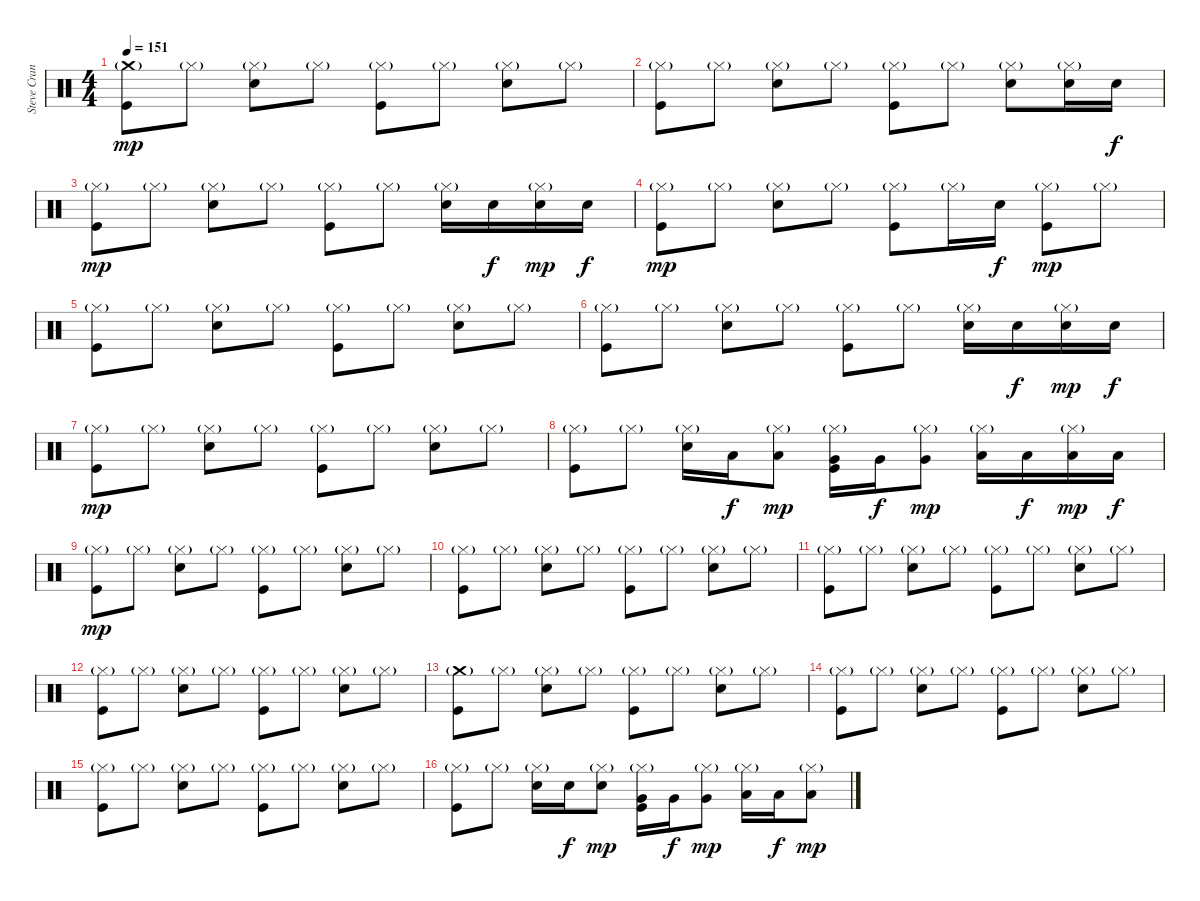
\track ("Steve Crane" "Steve Cran") {instrument percussion}
\staff {score}
\articulation defaults
\ts (4 4)
\tempo 151
\clef neutral
\ks c
("Crash medium (hit)"{g} "Kick (hit)").8{dy mp} "Hi-Hat (closed)"{g}.8 ("Hi-Hat (closed)"{g} "Snare (hit) 2").8 "Hi-Hat (closed)"{g}.8 ("Hi-Hat (closed)"{g} "Kick (hit)").8 "Hi-Hat (closed)"{g}.8 ("Hi-Hat (closed)"{g} "Snare (hit) 2").8 "Hi-Hat (closed)"{g}.8 |
("Hi-Hat (closed)"{g} "Kick (hit)").8 "Hi-Hat (closed)"{g}.8 ("Hi-Hat (closed)"{g} "Snare (hit) 2").8 "Hi-Hat (closed)"{g}.8 ("Hi-Hat (closed)"{g} "Kick (hit)").8 "Hi-Hat (closed)"{g}.8 ("Hi-Hat (closed)"{g} "Snare (hit) 2").8 ("Hi-Hat (closed)"{g} "Snare (hit) 2").16 "Snare (hit) 2".16{dy f} |
("Hi-Hat (closed)"{g} "Kick (hit)").8{dy mp} "Hi-Hat (closed)"{g}.8 ("Hi-Hat (closed)"{g} "Snare (hit) 2").8 "Hi-Hat (closed)"{g}.8 ("Hi-Hat (closed)"{g} "Kick (hit)").8 "Hi-Hat (closed)"{g}.8 ("Hi-Hat (closed)"{g} "Snare (hit) 2").16 "Snare (hit) 2".16{dy f} ("Hi-Hat (closed)"{g} "Snare (hit) 2").16{dy mp} "Snare (hit) 2".16{dy f} |
("Hi-Hat (closed)"{g} "Kick (hit)").8{dy mp} "Hi-Hat (closed)"{g}.8 ("Hi-Hat (closed)"{g} "Snare (hit) 2").8 "Hi-Hat (closed)"{g}.8 ("Hi-Hat (closed)"{g} "Kick (hit)").8 "Hi-Hat (closed)"{g}.16 "Snare (hit) 2".16{dy f} ("Hi-Hat (closed)"{g} "Kick (hit)").8{dy mp} "Hi-Hat (closed)"{g}.8 |
("Hi-Hat (closed)"{g} "Kick (hit)").8 "Hi-Hat (closed)"{g}.8 ("Hi-Hat (closed)"{g} "Snare (hit) 2").8 "Hi-Hat (closed)"{g}.8 ("Hi-Hat (closed)"{g} "Kick (hit)").8 "Hi-Hat (closed)"{g}.8 ("Hi-Hat (closed)"{g} "Snare (hit) 2").8 "Hi-Hat (closed)"{g}.8 |
("Hi-Hat (closed)"{g} "Kick (hit)").8 "Hi-Hat (closed)"{g}.8 ("Hi-Hat (closed)"{g} "Snare (hit) 2").8 "Hi-Hat (closed)"{g}.8 ("Hi-Hat (closed)"{g} "Kick (hit)").8 "Hi-Hat (closed)"{g}.8 ("Hi-Hat (closed)"{g} "Snare (hit) 2").16 "Snare (hit) 2".16{dy f} ("Hi-Hat (closed)"{g} "Snare (hit) 2").16{dy mp} "Snare (hit) 2".16{dy f} |
("Hi-Hat (closed)"{g} "Kick (hit)").8{dy mp} "Hi-Hat (closed)"{g}.8 ("Hi-Hat (closed)"{g} "Snare (hit) 2").8 "Hi-Hat (closed)"{g}.8 ("Hi-Hat (closed)"{g} "Kick (hit)").8 "Hi-Hat (closed)"{g}.8 ("Hi-Hat (closed)"{g} "Snare (hit) 2").8 "Hi-Hat (closed)"{g}.8 |
("Hi-Hat (closed)"{g} "Kick (hit)").8 "Hi-Hat (closed)"{g}.8 ("Hi-Hat (closed)"{g} "Snare (hit) 2").16 "Low Tom (hit)".16{dy f} ("Hi-Hat (closed)"{g} "Low Tom (hit)").8{dy mp} ("Hi-Hat (closed)"{g} "Very Low Tom (hit)" "Kick (hit)").16 "Very Low Tom (hit)".16{dy f} ("Hi-Hat (closed)"{g} "Very Low Tom (hit)").8{dy mp} ("Hi-Hat (closed)"{g} "Low Floor Tom (hit)").16 "Low Floor Tom (hit)".16{dy f} ("Hi-Hat (closed)"{g} "Low Floor Tom (hit)").16{dy mp} "Low Floor Tom (hit)".16{dy f} |
("Hi-Hat (closed)"{g} "Kick (hit)").8{dy mp} "Hi-Hat (closed)"{g}.8 ("Hi-Hat (closed)"{g} "Snare (hit) 2").8 "Hi-Hat (closed)"{g}.8 ("Hi-Hat (closed)"{g} "Kick (hit)").8 "Hi-Hat (closed)"{g}.8 ("Hi-Hat (closed)"{g} "Snare (hit) 2").8 "Hi-Hat (closed)"{g}.8 |
("Hi-Hat (closed)"{g} "Kick (hit)").8 "Hi-Hat (closed)"{g}.8 ("Hi-Hat (closed)"{g} "Snare (hit) 2").8 "Hi-Hat (closed)"{g}.8 ("Hi-Hat (closed)"{g} "Kick (hit)").8 "Hi-Hat (closed)"{g}.8 ("Hi-Hat (closed)"{g} "Snare (hit) 2").8 "Hi-Hat (closed)"{g}.8 |
("Hi-Hat (closed)"{g} "Kick (hit)").8 "Hi-Hat (closed)"{g}.8 ("Hi-Hat (closed)"{g} "Snare (hit) 2").8 "Hi-Hat (closed)"{g}.8 ("Hi-Hat (closed)"{g} "Kick (hit)").8 "Hi-Hat (closed)"{g}.8 ("Hi-Hat (closed)"{g} "Snare (hit) 2").8 "Hi-Hat (closed)"{g}.8 |
("Hi-Hat (closed)"{g} "Kick (hit)").8 "Hi-Hat (closed)"{g}.8 ("Hi-Hat (closed)"{g} "Snare (hit) 2").8 "Hi-Hat (closed)"{g}.8 ("Hi-Hat (closed)"{g} "Kick (hit)").8 "Hi-Hat (closed)"{g}.8 ("Hi-Hat (closed)"{g} "Snare (hit) 2").8 "Hi-Hat (closed)"{g}.8 |
("Crash medium (hit)"{g} "Kick (hit)").8 "Hi-Hat (closed)"{g}.8 ("Hi-Hat (closed)"{g} "Snare (hit) 2").8 "Hi-Hat (closed)"{g}.8 ("Hi-Hat (closed)"{g} "Kick (hit)").8 "Hi-Hat (closed)"{g}.8 ("Hi-Hat (closed)"{g} "Snare (hit) 2").8 "Hi-Hat (closed)"{g}.8 |
("Hi-Hat (closed)"{g} "Kick (hit)").8 "Hi-Hat (closed)"{g}.8 ("Hi-Hat (closed)"{g} "Snare (hit) 2").8 "Hi-Hat (closed)"{g}.8 ("Hi-Hat (closed)"{g} "Kick (hit)").8 "Hi-Hat (closed)"{g}.8 ("Hi-Hat (closed)"{g} "Snare (hit) 2").8 "Hi-Hat (closed)"{g}.8 |
("Hi-Hat (closed)"{g} "Kick (hit)").8 "Hi-Hat (closed)"{g}.8 ("Hi-Hat (closed)"{g} "Snare (hit) 2").8 "Hi-Hat (closed)"{g}.8 ("Hi-Hat (closed)"{g} "Kick (hit)").8 "Hi-Hat (closed)"{g}.8 ("Hi-Hat (closed)"{g} "Snare (hit) 2").8 "Hi-Hat (closed)"{g}.8 |
("Hi-Hat (closed)"{g} "Kick (hit)").8 "Hi-Hat (closed)"{g}.8 ("Hi-Hat (closed)"{g} "Snare (hit) 2").16 "Snare (hit) 2".16{dy f} ("Hi-Hat (closed)"{g} "Snare (hit) 2").8{dy mp} ("Hi-Hat (closed)"{g} "Very Low Tom (hit)" "Kick (hit)").16 "Very Low Tom (hit)".16{dy f} ("Hi-Hat (closed)"{g} "Very Low Tom (hit)").8{dy mp} ("Hi-Hat (closed)"{g} "Low Floor Tom (hit)").16 "Low Floor Tom (hit)".16{dy f} ("Hi-Hat (closed)"{g} "Low Floor Tom (hit)").8{dy mp}
